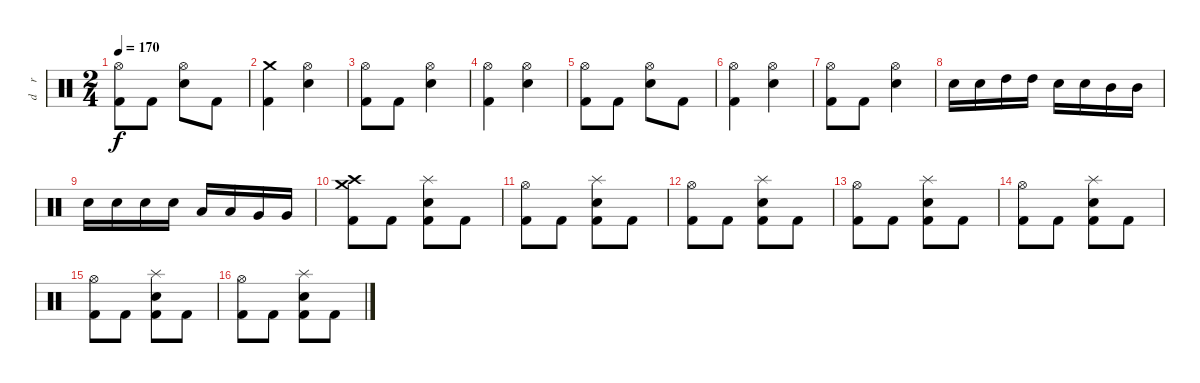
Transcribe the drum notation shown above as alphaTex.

\track ("d    r     u     m    s" "d    r    ") {instrument percussion}
\staff {score}
\articulation defaults
\ts (2 4)
\tempo 170
\clef neutral
\ks c
("Hi-Hat (open)" "Kick (hit) 2").8{dy f} "Kick (hit) 2".8 ("Hi-Hat (open)" "Electric Snare (hit)").8 "Kick (hit) 2".8 |
("Crash medium (hit)" "Kick (hit) 2").4 ("Hi-Hat (open)" "Electric Snare (hit)").4 |
("Hi-Hat (open)" "Kick (hit) 2").8 "Kick (hit) 2".8 ("Hi-Hat (open)" "Electric Snare (hit)").4 |
("Hi-Hat (open)" "Kick (hit) 2").4 ("Hi-Hat (open)" "Electric Snare (hit)").4 |
("Hi-Hat (open)" "Kick (hit) 2").8 "Kick (hit) 2".8 ("Hi-Hat (open)" "Electric Snare (hit)").8 "Kick (hit) 2".8 |
("Hi-Hat (open)" "Kick (hit) 2").4 ("Hi-Hat (open)" "Electric Snare (hit)").4 |
("Hi-Hat (open)" "Kick (hit) 2").8 "Kick (hit) 2".8 ("Hi-Hat (open)" "Electric Snare (hit)").4 |
"Electric Snare (hit)".16 "Electric Snare (hit)".16 "High Tom (hit)".16 "High Tom (hit)".16 "Electric Snare (hit)".16 "Electric Snare (hit)".16 "Mid Tom (hit)".16 "Mid Tom (hit)".16 |
"Electric Snare (hit)".16 "Electric Snare (hit)".16 "Electric Snare (hit)".16 "Electric Snare (hit)".16 "Low Tom (hit)".16 "Low Tom (hit)".16 "Very Low Tom (hit)".16 "Very Low Tom (hit)".16 |
("Crash high (hit)" "Crash medium (hit)" "Kick (hit) 2").8 "Kick (hit) 2".8 ("Splash (hit)" "Electric Snare (hit)" "Kick (hit) 2").8 "Kick (hit) 2".8 |
("Hi-Hat (open)" "Kick (hit) 2").8 "Kick (hit) 2".8 ("Splash (hit)" "Electric Snare (hit)" "Kick (hit) 2").8 "Kick (hit) 2".8 |
("Hi-Hat (open)" "Kick (hit) 2").8 "Kick (hit) 2".8 ("Splash (hit)" "Electric Snare (hit)" "Kick (hit) 2").8 "Kick (hit) 2".8 |
("Hi-Hat (open)" "Kick (hit) 2").8 "Kick (hit) 2".8 ("Splash (hit)" "Electric Snare (hit)" "Kick (hit) 2").8 "Kick (hit) 2".8 |
("Hi-Hat (open)" "Kick (hit) 2").8 "Kick (hit) 2".8 ("Splash (hit)" "Electric Snare (hit)" "Kick (hit) 2").8 "Kick (hit) 2".8 |
("Hi-Hat (open)" "Kick (hit) 2").8 "Kick (hit) 2".8 ("Splash (hit)" "Electric Snare (hit)" "Kick (hit) 2").8 "Kick (hit) 2".8 |
("Hi-Hat (open)" "Kick (hit) 2").8 "Kick (hit) 2".8 ("Splash (hit)" "Electric Snare (hit)" "Kick (hit) 2").8 "Kick (hit) 2".8
